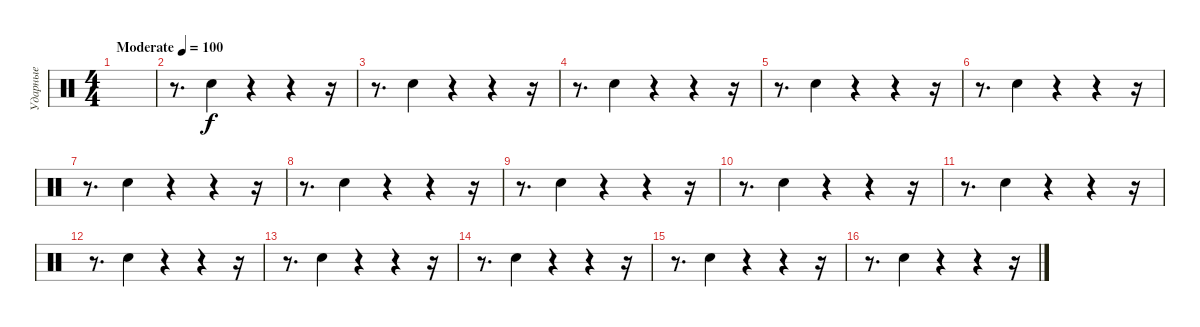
\track ("Ударные" "Ударные") {instrument percussion}
\staff {score}
\articulation defaults
\ts (4 4)
\tempo (100 "Moderate")
\clef neutral
\ks c
|
r.8{d} "Hand Clap (hit)".4 r.4 r.4 r.16 |
r.8{d} "Hand Clap (hit)".4 r.4 r.4 r.16 |
r.8{d} "Hand Clap (hit)".4 r.4 r.4 r.16 |
r.8{d} "Hand Clap (hit)".4 r.4 r.4 r.16 |
r.8{d} "Hand Clap (hit)".4 r.4 r.4 r.16 |
r.8{d} "Hand Clap (hit)".4 r.4 r.4 r.16 |
r.8{d} "Hand Clap (hit)".4 r.4 r.4 r.16 |
r.8{d} "Hand Clap (hit)".4 r.4 r.4 r.16 |
r.8{d} "Hand Clap (hit)".4 r.4 r.4 r.16 |
r.8{d} "Hand Clap (hit)".4 r.4 r.4 r.16 |
r.8{d} "Hand Clap (hit)".4 r.4 r.4 r.16 |
r.8{d} "Hand Clap (hit)".4 r.4 r.4 r.16 |
r.8{d} "Hand Clap (hit)".4 r.4 r.4 r.16 |
r.8{d} "Hand Clap (hit)".4 r.4 r.4 r.16 |
r.8{d} "Hand Clap (hit)".4 r.4 r.4 r.16
